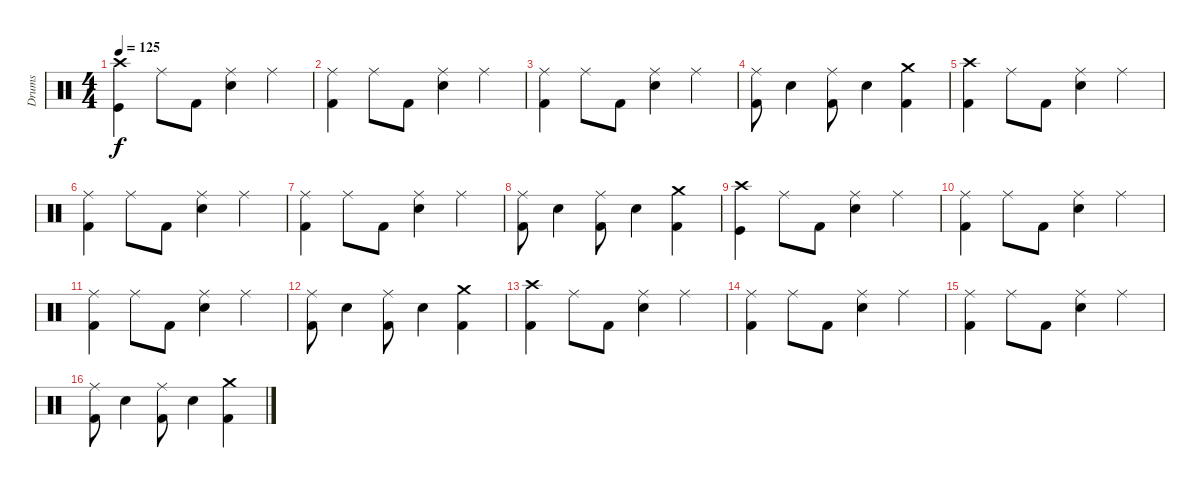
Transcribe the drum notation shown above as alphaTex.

\track ("Drums" "Drums") {instrument percussion}
\staff {score}
\articulation defaults
\ts (4 4)
\tempo 125
\clef neutral
\ks c
("Crash high (hit)" "Kick (hit)").4{dy f} "Ride (middle)".8 "Kick (hit) 2".8 ("Ride (middle)" "Electric Snare (hit)").4 "Ride (middle)".4 |
("Ride (middle)" "Kick (hit) 2").4 "Ride (middle)".8 "Kick (hit) 2".8 ("Ride (middle)" "Electric Snare (hit)").4 "Ride (middle)".4 |
("Ride (middle)" "Kick (hit) 2").4 "Ride (middle)".8 "Kick (hit) 2".8 ("Ride (middle)" "Electric Snare (hit)").4 "Ride (middle)".4 |
("Ride (middle)" "Kick (hit) 2").8 "Electric Snare (hit)".4 ("Ride (middle)" "Kick (hit) 2").8 "Electric Snare (hit)".4 ("Crash medium (hit)" "Kick (hit) 2").4 |
("Crash high (hit)" "Kick (hit) 2").4 "Ride (middle)".8 "Kick (hit) 2".8 ("Ride (middle)" "Electric Snare (hit)").4 "Ride (middle)".4 |
("Ride (middle)" "Kick (hit) 2").4 "Ride (middle)".8 "Kick (hit) 2".8 ("Ride (middle)" "Electric Snare (hit)").4 "Ride (middle)".4 |
("Ride (middle)" "Kick (hit) 2").4 "Ride (middle)".8 "Kick (hit) 2".8 ("Ride (middle)" "Electric Snare (hit)").4 "Ride (middle)".4 |
("Ride (middle)" "Kick (hit) 2").8 "Electric Snare (hit)".4 ("Ride (middle)" "Kick (hit) 2").8 "Electric Snare (hit)".4 ("Crash medium (hit)" "Kick (hit) 2").4 |
("Crash high (hit)" "Kick (hit)").4 "Ride (middle)".8 "Kick (hit) 2".8 ("Ride (middle)" "Electric Snare (hit)").4 "Ride (middle)".4 |
("Ride (middle)" "Kick (hit) 2").4 "Ride (middle)".8 "Kick (hit) 2".8 ("Ride (middle)" "Electric Snare (hit)").4 "Ride (middle)".4 |
("Ride (middle)" "Kick (hit) 2").4 "Ride (middle)".8 "Kick (hit) 2".8 ("Ride (middle)" "Electric Snare (hit)").4 "Ride (middle)".4 |
("Ride (middle)" "Kick (hit) 2").8 "Electric Snare (hit)".4 ("Ride (middle)" "Kick (hit) 2").8 "Electric Snare (hit)".4 ("Crash medium (hit)" "Kick (hit) 2").4 |
("Crash high (hit)" "Kick (hit) 2").4 "Ride (middle)".8 "Kick (hit) 2".8 ("Ride (middle)" "Electric Snare (hit)").4 "Ride (middle)".4 |
("Ride (middle)" "Kick (hit) 2").4 "Ride (middle)".8 "Kick (hit) 2".8 ("Ride (middle)" "Electric Snare (hit)").4 "Ride (middle)".4 |
("Ride (middle)" "Kick (hit) 2").4 "Ride (middle)".8 "Kick (hit) 2".8 ("Ride (middle)" "Electric Snare (hit)").4 "Ride (middle)".4 |
("Ride (middle)" "Kick (hit) 2").8 "Electric Snare (hit)".4 ("Ride (middle)" "Kick (hit) 2").8 "Electric Snare (hit)".4 ("Crash medium (hit)" "Kick (hit) 2").4
